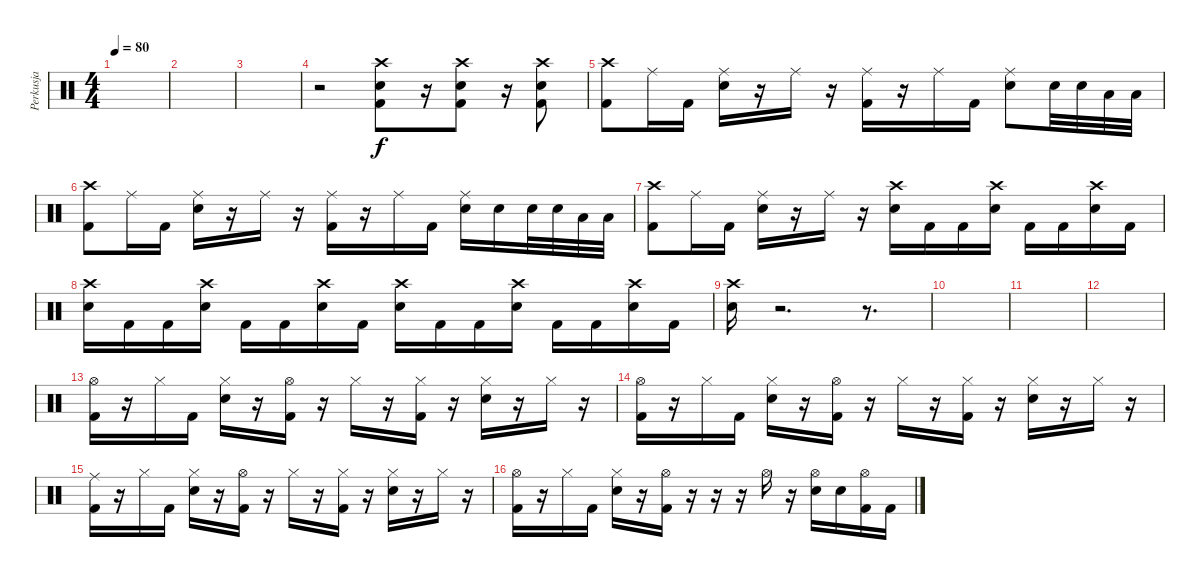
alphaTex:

\track ("Perkusja" "Perkusja") {instrument percussion}
\staff {score}
\articulation defaults
\ts (4 4)
\tempo 80
\clef neutral
\ks c
|
|
|
r.2 ("Crash high (hit)" "Snare (hit) 2" "Kick (hit) 2").8 r.16 ("Crash high (hit)" "Snare (hit) 2" "Kick (hit) 2").8 r.16 ("Crash high (hit)" "Snare (hit) 2" "Kick (hit) 2").8 |
("Crash high (hit)" "Kick (hit) 2").8 "Ride (middle)".16 "Kick (hit) 2".16 ("Ride (middle)" "Snare (hit) 2").16 r.16 "Ride (middle)".16 r.16 ("Ride (middle)" "Kick (hit) 2").16 r.16 "Ride (middle)".16 "Kick (hit) 2".16 ("Ride (middle)" "Snare (hit) 2").8 "Snare (hit) 2".32 "Snare (hit) 2".32 "Low Floor Tom (hit)".32 "Low Floor Tom (hit)".32 |
("Crash high (hit)" "Kick (hit) 2").8 "Ride (middle)".16 "Kick (hit) 2".16 ("Ride (middle)" "Snare (hit) 2").16 r.16 "Ride (middle)".16 r.16 ("Ride (middle)" "Kick (hit) 2").16 r.16 "Ride (middle)".16 "Kick (hit) 2".16 ("Ride (middle)" "Snare (hit) 2").16 "Snare (hit) 2".16 "Snare (hit) 2".32 "Snare (hit) 2".32 "Low Floor Tom (hit)".32 "Low Floor Tom (hit)".32 |
("Crash high (hit)" "Kick (hit) 2").8 "Ride (middle)".16 "Kick (hit) 2".16 ("Ride (middle)" "Snare (hit) 2").16 r.16 "Ride (middle)".16 r.16 ("Crash high (hit)" "Snare (hit) 2").16 "Kick (hit) 2".16 "Kick (hit) 2".16 ("Crash high (hit)" "Snare (hit) 2").16 "Kick (hit) 2".16 "Kick (hit) 2".16 ("Crash high (hit)" "Snare (hit) 2").16 "Kick (hit) 2".16 |
("Crash high (hit)" "Snare (hit) 2").16 "Kick (hit) 2".16 "Kick (hit) 2".16 ("Crash high (hit)" "Snare (hit) 2").16 "Kick (hit) 2".16 "Kick (hit) 2".16 ("Crash high (hit)" "Snare (hit) 2").16 "Kick (hit) 2".16 ("Crash high (hit)" "Snare (hit) 2").16 "Kick (hit) 2".16 "Kick (hit) 2".16 ("Crash high (hit)" "Snare (hit) 2").16 "Kick (hit) 2".16 "Kick (hit) 2".16 ("Crash high (hit)" "Snare (hit) 2").16 "Kick (hit) 2".16 |
("Crash high (hit)" "Snare (hit) 2").16 r.2{d} r.8{d} |
|
|
|
("Hi-Hat (open)" "Kick (hit) 2").16 r.16 "Hi-Hat (closed)".16 "Kick (hit) 2".16 ("Hi-Hat (closed)" "Snare (hit) 2").16 r.16 ("Hi-Hat (open)" "Kick (hit) 2").16 r.16 "Hi-Hat (closed)".16 r.16 ("Hi-Hat (closed)" "Kick (hit) 2").16 r.16 ("Hi-Hat (closed)" "Snare (hit) 2").16 r.16 "Hi-Hat (closed)".16 r.16 |
("Hi-Hat (open)" "Kick (hit) 2").16 r.16 "Hi-Hat (closed)".16 "Kick (hit) 2".16 ("Hi-Hat (closed)" "Snare (hit) 2").16 r.16 ("Hi-Hat (open)" "Kick (hit) 2").16 r.16 "Hi-Hat (closed)".16 r.16 ("Hi-Hat (closed)" "Kick (hit) 2").16 r.16 ("Hi-Hat (closed)" "Snare (hit) 2").16 r.16 "Hi-Hat (closed)".16 r.16 |
("Ride (middle)" "Kick (hit) 2").16 r.16 "Hi-Hat (closed)".16 "Kick (hit) 2".16 ("Hi-Hat (closed)" "Snare (hit) 2").16 r.16 ("Hi-Hat (open)" "Kick (hit) 2").16 r.16 "Hi-Hat (closed)".16 r.16 ("Hi-Hat (closed)" "Kick (hit) 2").16 r.16 ("Hi-Hat (closed)" "Snare (hit) 2").16 r.16 "Hi-Hat (closed)".16 r.16 |
("Hi-Hat (open)" "Kick (hit) 2").16 r.16 "Hi-Hat (closed)".16 "Kick (hit) 2".16 ("Hi-Hat (closed)" "Snare (hit) 2").16 r.16 ("Hi-Hat (open)" "Kick (hit) 2").16 r.16 r.16 r.16 "Hi-Hat (open)".16 r.16 ("Hi-Hat (open)" "Snare (hit) 2").16 "Snare (hit) 2".16 ("Hi-Hat (open)" "Kick (hit) 2").16 "Kick (hit) 2".16
